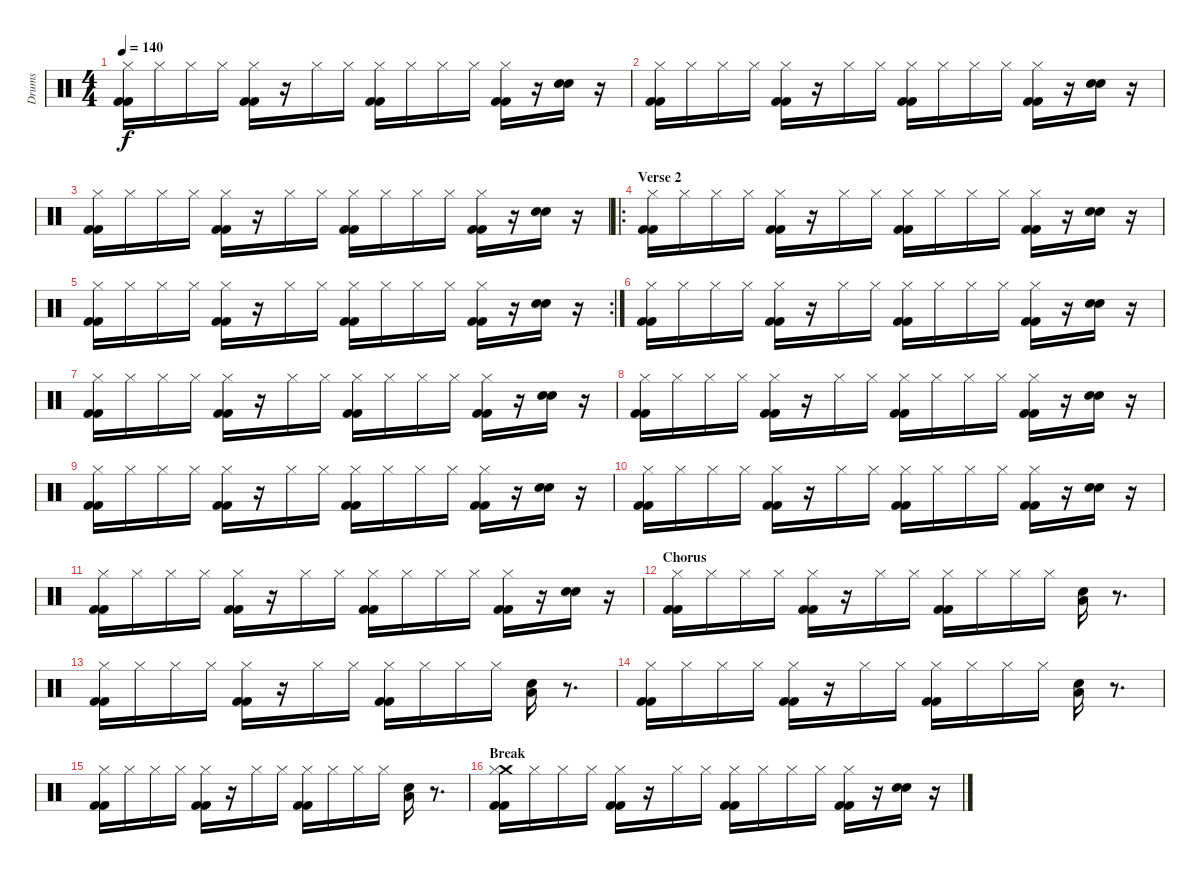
\track ("Drums" "Drums") {instrument percussion}
\staff {score}
\articulation defaults
\ts (4 4)
\tempo 140
\clef neutral
\ks c
("Hi-Hat (closed)" "Kick (hit) 2" "Kick (hit) 2").16{dy f} "Hi-Hat (closed)".16 "Hi-Hat (closed)".16 "Hi-Hat (closed)".16 ("Hi-Hat (closed)" "Kick (hit) 2" "Kick (hit) 2").16 r.16 "Hi-Hat (closed)".16 "Hi-Hat (closed)".16 ("Hi-Hat (closed)" "Kick (hit) 2" "Kick (hit) 2").16 "Hi-Hat (closed)".16 "Hi-Hat (closed)".16 "Hi-Hat (closed)".16 ("Hi-Hat (closed)" "Kick (hit) 2" "Kick (hit) 2").16 r.16 ("Snare (hit) 2" "Snare (hit) 2").16 r.16 |
("Hi-Hat (closed)" "Kick (hit) 2" "Kick (hit) 2").16 "Hi-Hat (closed)".16 "Hi-Hat (closed)".16 "Hi-Hat (closed)".16 ("Hi-Hat (closed)" "Kick (hit) 2" "Kick (hit) 2").16 r.16 "Hi-Hat (closed)".16 "Hi-Hat (closed)".16 ("Hi-Hat (closed)" "Kick (hit) 2" "Kick (hit) 2").16 "Hi-Hat (closed)".16 "Hi-Hat (closed)".16 "Hi-Hat (closed)".16 ("Hi-Hat (closed)" "Kick (hit) 2" "Kick (hit) 2").16 r.16 ("Snare (hit) 2" "Snare (hit) 2").16 r.16 |
("Hi-Hat (closed)" "Kick (hit) 2" "Kick (hit) 2").16 "Hi-Hat (closed)".16 "Hi-Hat (closed)".16 "Hi-Hat (closed)".16 ("Hi-Hat (closed)" "Kick (hit) 2" "Kick (hit) 2").16 r.16 "Hi-Hat (closed)".16 "Hi-Hat (closed)".16 ("Hi-Hat (closed)" "Kick (hit) 2" "Kick (hit) 2").16 "Hi-Hat (closed)".16 "Hi-Hat (closed)".16 "Hi-Hat (closed)".16 ("Hi-Hat (closed)" "Kick (hit) 2" "Kick (hit) 2").16 r.16 ("Snare (hit) 2" "Snare (hit) 2").16 r.16 |
\ro
\section ("" "Verse 2")
("Hi-Hat (closed)" "Kick (hit) 2" "Kick (hit) 2").16 "Hi-Hat (closed)".16 "Hi-Hat (closed)".16 "Hi-Hat (closed)".16 ("Hi-Hat (closed)" "Kick (hit) 2" "Kick (hit) 2").16 r.16 "Hi-Hat (closed)".16 "Hi-Hat (closed)".16 ("Hi-Hat (closed)" "Kick (hit) 2" "Kick (hit) 2").16 "Hi-Hat (closed)".16 "Hi-Hat (closed)".16 "Hi-Hat (closed)".16 ("Hi-Hat (closed)" "Kick (hit) 2" "Kick (hit) 2").16 r.16 ("Snare (hit) 2" "Snare (hit) 2").16 r.16 |
\rc 2
("Hi-Hat (closed)" "Kick (hit) 2" "Kick (hit) 2").16 "Hi-Hat (closed)".16 "Hi-Hat (closed)".16 "Hi-Hat (closed)".16 ("Hi-Hat (closed)" "Kick (hit) 2" "Kick (hit) 2").16 r.16 "Hi-Hat (closed)".16 "Hi-Hat (closed)".16 ("Hi-Hat (closed)" "Kick (hit) 2" "Kick (hit) 2").16 "Hi-Hat (closed)".16 "Hi-Hat (closed)".16 "Hi-Hat (closed)".16 ("Hi-Hat (closed)" "Kick (hit) 2" "Kick (hit) 2").16 r.16 ("Snare (hit) 2" "Snare (hit) 2").16 r.16 |
("Hi-Hat (closed)" "Kick (hit) 2" "Kick (hit) 2").16 "Hi-Hat (closed)".16 "Hi-Hat (closed)".16 "Hi-Hat (closed)".16 ("Hi-Hat (closed)" "Kick (hit) 2" "Kick (hit) 2").16 r.16 "Hi-Hat (closed)".16 "Hi-Hat (closed)".16 ("Hi-Hat (closed)" "Kick (hit) 2" "Kick (hit) 2").16 "Hi-Hat (closed)".16 "Hi-Hat (closed)".16 "Hi-Hat (closed)".16 ("Hi-Hat (closed)" "Kick (hit) 2" "Kick (hit) 2").16 r.16 ("Snare (hit) 2" "Snare (hit) 2").16 r.16 |
("Hi-Hat (closed)" "Kick (hit) 2" "Kick (hit) 2").16 "Hi-Hat (closed)".16 "Hi-Hat (closed)".16 "Hi-Hat (closed)".16 ("Hi-Hat (closed)" "Kick (hit) 2" "Kick (hit) 2").16 r.16 "Hi-Hat (closed)".16 "Hi-Hat (closed)".16 ("Hi-Hat (closed)" "Kick (hit) 2" "Kick (hit) 2").16 "Hi-Hat (closed)".16 "Hi-Hat (closed)".16 "Hi-Hat (closed)".16 ("Hi-Hat (closed)" "Kick (hit) 2" "Kick (hit) 2").16 r.16 ("Snare (hit) 2" "Snare (hit) 2").16 r.16 |
("Hi-Hat (closed)" "Kick (hit) 2" "Kick (hit) 2").16 "Hi-Hat (closed)".16 "Hi-Hat (closed)".16 "Hi-Hat (closed)".16 ("Hi-Hat (closed)" "Kick (hit) 2" "Kick (hit) 2").16 r.16 "Hi-Hat (closed)".16 "Hi-Hat (closed)".16 ("Hi-Hat (closed)" "Kick (hit) 2" "Kick (hit) 2").16 "Hi-Hat (closed)".16 "Hi-Hat (closed)".16 "Hi-Hat (closed)".16 ("Hi-Hat (closed)" "Kick (hit) 2" "Kick (hit) 2").16 r.16 ("Snare (hit) 2" "Snare (hit) 2").16 r.16 |
("Hi-Hat (closed)" "Kick (hit) 2" "Kick (hit) 2").16 "Hi-Hat (closed)".16 "Hi-Hat (closed)".16 "Hi-Hat (closed)".16 ("Hi-Hat (closed)" "Kick (hit) 2" "Kick (hit) 2").16 r.16 "Hi-Hat (closed)".16 "Hi-Hat (closed)".16 ("Hi-Hat (closed)" "Kick (hit) 2" "Kick (hit) 2").16 "Hi-Hat (closed)".16 "Hi-Hat (closed)".16 "Hi-Hat (closed)".16 ("Hi-Hat (closed)" "Kick (hit) 2" "Kick (hit) 2").16 r.16 ("Snare (hit) 2" "Snare (hit) 2").16 r.16 |
("Hi-Hat (closed)" "Kick (hit) 2" "Kick (hit) 2").16 "Hi-Hat (closed)".16 "Hi-Hat (closed)".16 "Hi-Hat (closed)".16 ("Hi-Hat (closed)" "Kick (hit) 2" "Kick (hit) 2").16 r.16 "Hi-Hat (closed)".16 "Hi-Hat (closed)".16 ("Hi-Hat (closed)" "Kick (hit) 2" "Kick (hit) 2").16 "Hi-Hat (closed)".16 "Hi-Hat (closed)".16 "Hi-Hat (closed)".16 ("Hi-Hat (closed)" "Kick (hit) 2" "Kick (hit) 2").16 r.16 ("Snare (hit) 2" "Snare (hit) 2").16 r.16 |
("Hi-Hat (closed)" "Kick (hit) 2" "Kick (hit) 2").16 "Hi-Hat (closed)".16 "Hi-Hat (closed)".16 "Hi-Hat (closed)".16 ("Hi-Hat (closed)" "Kick (hit) 2" "Kick (hit) 2").16 r.16 "Hi-Hat (closed)".16 "Hi-Hat (closed)".16 ("Hi-Hat (closed)" "Kick (hit) 2" "Kick (hit) 2").16 "Hi-Hat (closed)".16 "Hi-Hat (closed)".16 "Hi-Hat (closed)".16 ("Hi-Hat (closed)" "Kick (hit) 2" "Kick (hit) 2").16 r.16 ("Snare (hit) 2" "Snare (hit) 2").16 r.16 |
\section ("" "Chorus")
("Hi-Hat (closed)" "Kick (hit) 2" "Kick (hit) 2").16 "Hi-Hat (closed)".16 "Hi-Hat (closed)".16 "Hi-Hat (closed)".16 ("Hi-Hat (closed)" "Kick (hit) 2" "Kick (hit) 2").16 r.16 "Hi-Hat (closed)".16 "Hi-Hat (closed)".16 ("Hi-Hat (closed)" "Kick (hit) 2" "Kick (hit) 2").16 "Hi-Hat (closed)".16 "Hi-Hat (closed)".16 "Hi-Hat (closed)".16 ("Snare (hit) 2" "Low Floor Tom (hit)").16 r.8{d} |
("Hi-Hat (closed)" "Kick (hit) 2" "Kick (hit) 2").16 "Hi-Hat (closed)".16 "Hi-Hat (closed)".16 "Hi-Hat (closed)".16 ("Hi-Hat (closed)" "Kick (hit) 2" "Kick (hit) 2").16 r.16 "Hi-Hat (closed)".16 "Hi-Hat (closed)".16 ("Hi-Hat (closed)" "Kick (hit) 2" "Kick (hit) 2").16 "Hi-Hat (closed)".16 "Hi-Hat (closed)".16 "Hi-Hat (closed)".16 ("Snare (hit) 2" "Low Floor Tom (hit)").16 r.8{d} |
("Hi-Hat (closed)" "Kick (hit) 2" "Kick (hit) 2").16 "Hi-Hat (closed)".16 "Hi-Hat (closed)".16 "Hi-Hat (closed)".16 ("Hi-Hat (closed)" "Kick (hit) 2" "Kick (hit) 2").16 r.16 "Hi-Hat (closed)".16 "Hi-Hat (closed)".16 ("Hi-Hat (closed)" "Kick (hit) 2" "Kick (hit) 2").16 "Hi-Hat (closed)".16 "Hi-Hat (closed)".16 "Hi-Hat (closed)".16 ("Snare (hit) 2" "Low Floor Tom (hit)").16 r.8{d} |
("Hi-Hat (closed)" "Kick (hit) 2" "Kick (hit) 2").16 "Hi-Hat (closed)".16 "Hi-Hat (closed)".16 "Hi-Hat (closed)".16 ("Hi-Hat (closed)" "Kick (hit) 2" "Kick (hit) 2").16 r.16 "Hi-Hat (closed)".16 "Hi-Hat (closed)".16 ("Hi-Hat (closed)" "Kick (hit) 2" "Kick (hit) 2").16 "Hi-Hat (closed)".16 "Hi-Hat (closed)".16 "Hi-Hat (closed)".16 ("Snare (hit) 2" "Low Floor Tom (hit)").16 r.8{d} |
\section ("" "Break")
("Crash medium (hit)" "Hi-Hat (closed)" "Kick (hit) 2" "Kick (hit) 2").16 "Hi-Hat (closed)".16 "Hi-Hat (closed)".16 "Hi-Hat (closed)".16 ("Hi-Hat (closed)" "Kick (hit) 2" "Kick (hit) 2").16 r.16 "Hi-Hat (closed)".16 "Hi-Hat (closed)".16 ("Hi-Hat (closed)" "Kick (hit) 2" "Kick (hit) 2").16 "Hi-Hat (closed)".16 "Hi-Hat (closed)".16 "Hi-Hat (closed)".16 ("Hi-Hat (closed)" "Kick (hit) 2" "Kick (hit) 2").16 r.16 ("Snare (hit) 2" "Snare (hit) 2").16 r.16
